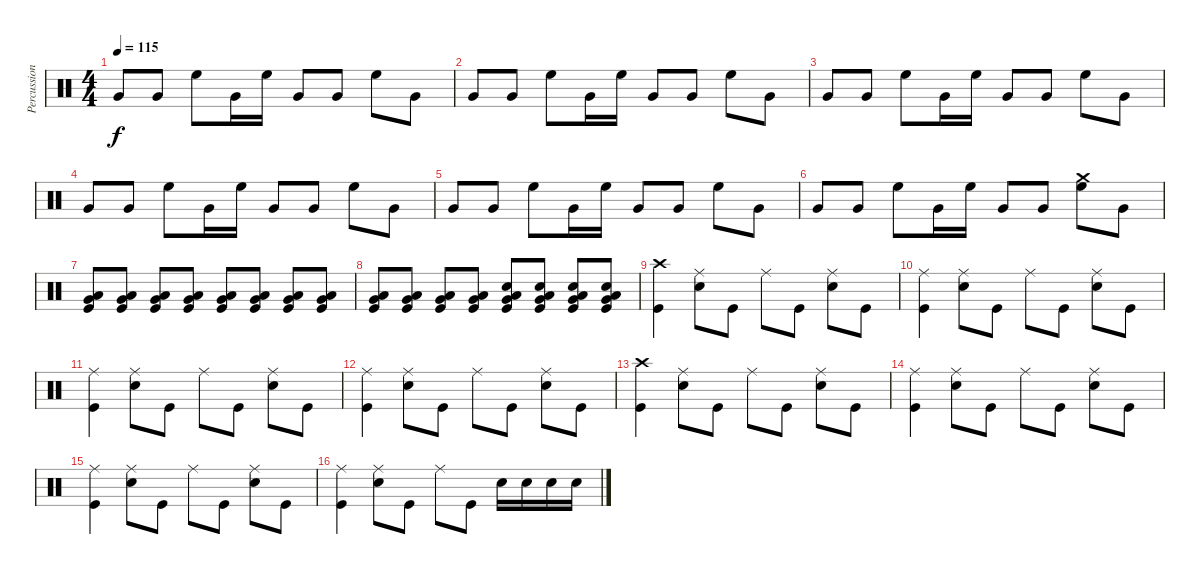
\track ("Percussion" "Percussion") {instrument percussion}
\staff {score}
\articulation defaults
\ts (4 4)
\tempo 115
\clef neutral
\ks c "Very Low Tom (hit)".8{dy f} "Very Low Tom (hit)".8 "High Floor Tom (hit)".8 "Very Low Tom (hit)".16 "High Floor Tom (hit)".16 "Very Low Tom (hit)".8 "Very Low Tom (hit)".8 "High Floor Tom (hit)".8 "Very Low Tom (hit)".8
|
"Very Low Tom (hit)".8 "Very Low Tom (hit)".8 "High Floor Tom (hit)".8 "Very Low Tom (hit)".16 "High Floor Tom (hit)".16 "Very Low Tom (hit)".8 "Very Low Tom (hit)".8 "High Floor Tom (hit)".8 "Very Low Tom (hit)".8 |
"Very Low Tom (hit)".8 "Very Low Tom (hit)".8 "High Floor Tom (hit)".8 "Very Low Tom (hit)".16 "High Floor Tom (hit)".16 "Very Low Tom (hit)".8 "Very Low Tom (hit)".8 "High Floor Tom (hit)".8 "Very Low Tom (hit)".8 |
"Very Low Tom (hit)".8 "Very Low Tom (hit)".8 "High Floor Tom (hit)".8 "Very Low Tom (hit)".16 "High Floor Tom (hit)".16 "Very Low Tom (hit)".8 "Very Low Tom (hit)".8 "High Floor Tom (hit)".8 "Very Low Tom (hit)".8 |
"Very Low Tom (hit)".8 "Very Low Tom (hit)".8 "High Floor Tom (hit)".8 "Very Low Tom (hit)".16 "High Floor Tom (hit)".16 "Very Low Tom (hit)".8 "Very Low Tom (hit)".8 "High Floor Tom (hit)".8 "Very Low Tom (hit)".8 |
"Very Low Tom (hit)".8 "Very Low Tom (hit)".8 "High Floor Tom (hit)".8 "Very Low Tom (hit)".16 "High Floor Tom (hit)".16 "Very Low Tom (hit)".8 "Very Low Tom (hit)".8 ("Crash medium (hit)" "High Floor Tom (hit)").8 "Very Low Tom (hit)".8 |
("Low Floor Tom (hit)" "Very Low Tom (hit)" "Kick (hit)").8 ("Low Floor Tom (hit)" "Very Low Tom (hit)" "Kick (hit)").8 ("Low Floor Tom (hit)" "Very Low Tom (hit)" "Kick (hit)").8 ("Low Floor Tom (hit)" "Very Low Tom (hit)" "Kick (hit)").8 ("Low Floor Tom (hit)" "Very Low Tom (hit)" "Kick (hit)").8 ("Low Floor Tom (hit)" "Very Low Tom (hit)" "Kick (hit)").8 ("Low Floor Tom (hit)" "Very Low Tom (hit)" "Kick (hit)").8 ("Low Floor Tom (hit)" "Very Low Tom (hit)" "Kick (hit)").8 |
("Low Floor Tom (hit)" "Very Low Tom (hit)" "Kick (hit)").8 ("Low Floor Tom (hit)" "Very Low Tom (hit)" "Kick (hit)").8 ("Low Floor Tom (hit)" "Very Low Tom (hit)" "Kick (hit)").8 ("Low Floor Tom (hit)" "Very Low Tom (hit)" "Kick (hit)").8 ("Low Floor Tom (hit)" "Electric Snare (hit)" "Very Low Tom (hit)" "Kick (hit)").8 ("Low Floor Tom (hit)" "Electric Snare (hit)" "Very Low Tom (hit)" "Kick (hit)").8 ("Low Floor Tom (hit)" "Electric Snare (hit)" "Very Low Tom (hit)" "Kick (hit)").8 ("Low Floor Tom (hit)" "Electric Snare (hit)" "Very Low Tom (hit)" "Kick (hit)").8 |
("Crash high (hit)" "Kick (hit)").4 ("Ride (middle)" "Electric Snare (hit)").8 "Kick (hit)".8 "Ride (middle)".8 "Kick (hit)".8 ("Ride (middle)" "Electric Snare (hit)").8 "Kick (hit)".8 |
("Ride (middle)" "Kick (hit)").4 ("Ride (middle)" "Electric Snare (hit)").8 "Kick (hit)".8 "Ride (middle)".8 "Kick (hit)".8 ("Ride (middle)" "Electric Snare (hit)").8 "Kick (hit)".8 |
("Ride (middle)" "Kick (hit)").4 ("Ride (middle)" "Electric Snare (hit)").8 "Kick (hit)".8 "Ride (middle)".8 "Kick (hit)".8 ("Ride (middle)" "Electric Snare (hit)").8 "Kick (hit)".8 |
("Ride (middle)" "Kick (hit)").4 ("Ride (middle)" "Electric Snare (hit)").8 "Kick (hit)".8 "Ride (middle)".8 "Kick (hit)".8 ("Ride (middle)" "Electric Snare (hit)").8 "Kick (hit)".8 |
("Crash high (hit)" "Kick (hit)").4 ("Ride (middle)" "Electric Snare (hit)").8 "Kick (hit)".8 "Ride (middle)".8 "Kick (hit)".8 ("Ride (middle)" "Electric Snare (hit)").8 "Kick (hit)".8 |
("Ride (middle)" "Kick (hit)").4 ("Ride (middle)" "Electric Snare (hit)").8 "Kick (hit)".8 "Ride (middle)".8 "Kick (hit)".8 ("Ride (middle)" "Electric Snare (hit)").8 "Kick (hit)".8 |
("Ride (middle)" "Kick (hit)").4 ("Ride (middle)" "Electric Snare (hit)").8 "Kick (hit)".8 "Ride (middle)".8 "Kick (hit)".8 ("Ride (middle)" "Electric Snare (hit)").8 "Kick (hit)".8 |
("Ride (middle)" "Kick (hit)").4 ("Ride (middle)" "Electric Snare (hit)").8 "Kick (hit)".8 "Ride (middle)".8 "Kick (hit)".8 "Electric Snare (hit)".16 "Electric Snare (hit)".16 "Electric Snare (hit)".16 "Electric Snare (hit)".16
